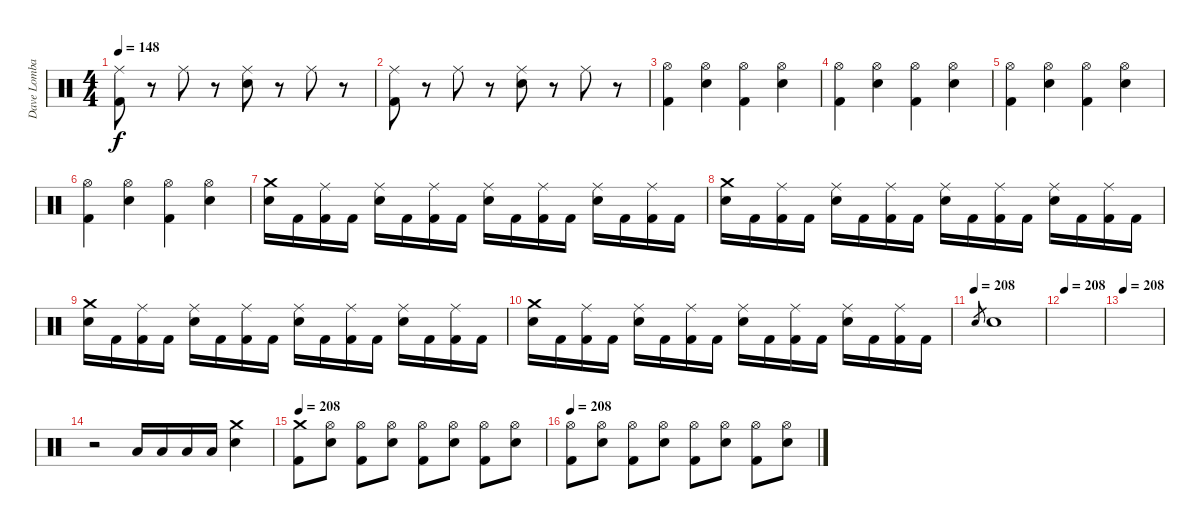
\track ("Dave Lombardo" "Dave Lomba") {instrument percussion}
\staff {score}
\articulation defaults
\ts (4 4)
\tempo 148
\clef neutral
\ks c
("Kick (hit) 2" "Ride (middle)").8{dy f} r.8 "Ride (middle)".8 r.8 ("Electric Snare (hit)" "Ride (middle)").8 r.8 "Ride (middle)".8 r.8 |
("Kick (hit) 2" "Ride (middle)").8 r.8 "Ride (middle)".8 r.8 ("Electric Snare (hit)" "Ride (middle)").8 r.8 "Ride (middle)".8 r.8 |
("Hi-Hat (open)" "Kick (hit) 2").4 ("Hi-Hat (open)" "Electric Snare (hit)").4 ("Hi-Hat (open)" "Kick (hit) 2").4 ("Hi-Hat (open)" "Electric Snare (hit)").4 |
("Hi-Hat (open)" "Kick (hit) 2").4 ("Hi-Hat (open)" "Electric Snare (hit)").4 ("Hi-Hat (open)" "Kick (hit) 2").4 ("Hi-Hat (open)" "Electric Snare (hit)").4 |
("Hi-Hat (open)" "Kick (hit) 2").4 ("Hi-Hat (open)" "Electric Snare (hit)").4 ("Hi-Hat (open)" "Kick (hit) 2").4 ("Hi-Hat (open)" "Electric Snare (hit)").4 |
("Hi-Hat (open)" "Kick (hit) 2").4 ("Hi-Hat (open)" "Electric Snare (hit)").4 ("Hi-Hat (open)" "Kick (hit) 2").4 ("Hi-Hat (open)" "Electric Snare (hit)").4 |
("Crash medium (hit)" "Electric Snare (hit)").16 "Kick (hit) 2".16 ("Ride (middle)" "Kick (hit) 2").16 "Kick (hit) 2".16 ("Ride (middle)" "Electric Snare (hit)").16 "Kick (hit) 2".16 ("Ride (middle)" "Kick (hit) 2").16 "Kick (hit) 2".16 ("Ride (middle)" "Electric Snare (hit)").16 "Kick (hit) 2".16 ("Ride (middle)" "Kick (hit) 2").16 "Kick (hit) 2".16 ("Ride (middle)" "Electric Snare (hit)").16 "Kick (hit) 2".16 ("Ride (middle)" "Kick (hit) 2").16 "Kick (hit) 2".16 |
("Crash medium (hit)" "Electric Snare (hit)").16 "Kick (hit) 2".16 ("Ride (middle)" "Kick (hit) 2").16 "Kick (hit) 2".16 ("Ride (middle)" "Electric Snare (hit)").16 "Kick (hit) 2".16 ("Ride (middle)" "Kick (hit) 2").16 "Kick (hit) 2".16 ("Ride (middle)" "Electric Snare (hit)").16 "Kick (hit) 2".16 ("Ride (middle)" "Kick (hit) 2").16 "Kick (hit) 2".16 ("Ride (middle)" "Electric Snare (hit)").16 "Kick (hit) 2".16 ("Ride (middle)" "Kick (hit) 2").16 "Kick (hit) 2".16 |
("Crash medium (hit)" "Electric Snare (hit)").16 "Kick (hit) 2".16 ("Ride (middle)" "Kick (hit) 2").16 "Kick (hit) 2".16 ("Ride (middle)" "Electric Snare (hit)").16 "Kick (hit) 2".16 ("Ride (middle)" "Kick (hit) 2").16 "Kick (hit) 2".16 ("Ride (middle)" "Electric Snare (hit)").16 "Kick (hit) 2".16 ("Ride (middle)" "Kick (hit) 2").16 "Kick (hit) 2".16 ("Ride (middle)" "Electric Snare (hit)").16 "Kick (hit) 2".16 ("Ride (middle)" "Kick (hit) 2").16 "Kick (hit) 2".16 |
("Crash medium (hit)" "Electric Snare (hit)").16 "Kick (hit) 2".16 ("Ride (middle)" "Kick (hit) 2").16 "Kick (hit) 2".16 ("Ride (middle)" "Electric Snare (hit)").16 "Kick (hit) 2".16 ("Ride (middle)" "Kick (hit) 2").16 "Kick (hit) 2".16 ("Ride (middle)" "Electric Snare (hit)").16 "Kick (hit) 2".16 ("Ride (middle)" "Kick (hit) 2").16 "Kick (hit) 2".16 ("Ride (middle)" "Electric Snare (hit)").16 "Kick (hit) 2".16 ("Ride (middle)" "Kick (hit) 2").16 "Kick (hit) 2".16 |
\tempo (208)
"Electric Snare (hit)".8{gr} "Electric Snare (hit)".1 |
\tempo 208
|
\tempo 208
|
r.2 "Low Tom (hit)".16 "Low Tom (hit)".16 "Low Tom (hit)".16 "Low Tom (hit)".16 ("Crash medium (hit)" "Electric Snare (hit)").4 |
\tempo 208
("Crash medium (hit)" "Kick (hit) 2").8 ("Electric Snare (hit)" "Hi-Hat (open)").8 ("Kick (hit) 2" "Hi-Hat (open)").8 ("Electric Snare (hit)" "Hi-Hat (open)").8 ("Kick (hit) 2" "Hi-Hat (open)").8 ("Electric Snare (hit)" "Hi-Hat (open)").8 ("Kick (hit) 2" "Hi-Hat (open)").8 ("Electric Snare (hit)" "Hi-Hat (open)").8 |
\tempo 208
("Hi-Hat (open)" "Kick (hit) 2").8 ("Electric Snare (hit)" "Hi-Hat (open)").8 ("Kick (hit) 2" "Hi-Hat (open)").8 ("Electric Snare (hit)" "Hi-Hat (open)").8 ("Kick (hit) 2" "Hi-Hat (open)").8 ("Electric Snare (hit)" "Hi-Hat (open)").8 ("Kick (hit) 2" "Hi-Hat (open)").8 ("Electric Snare (hit)" "Hi-Hat (open)").8
